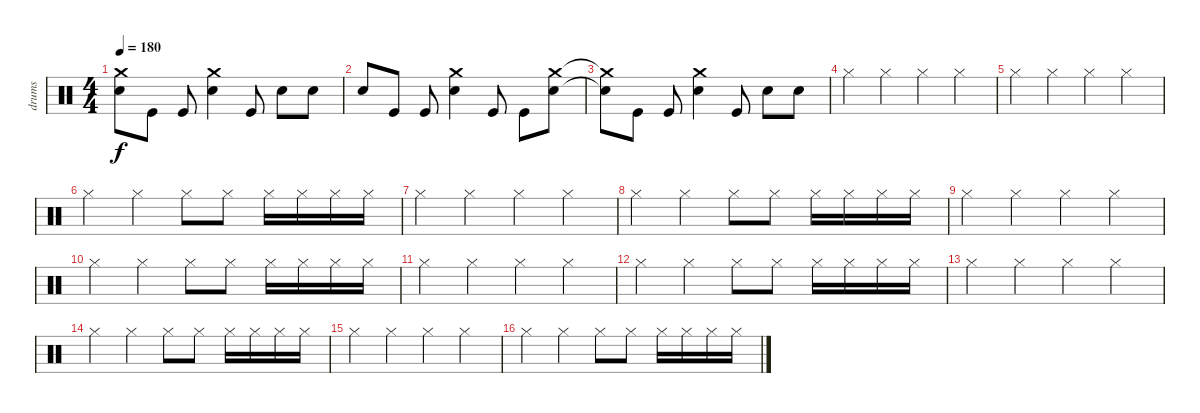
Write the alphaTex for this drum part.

\track ("drums" "drums") {instrument percussion}
\staff {score}
\articulation defaults
\ts (4 4)
\tempo 180
\clef neutral
\ks c
("Crash medium (hit)"{t} "Electric Snare (hit)"{t}).8{dy f} "Kick (hit)".8 "Kick (hit)".8 ("Crash medium (hit)" "Electric Snare (hit)").4 "Kick (hit)".8 "Electric Snare (hit)".8 "Electric Snare (hit)".8 |
"Electric Snare (hit)".8 "Kick (hit)".8 "Kick (hit)".8 ("Crash medium (hit)" "Electric Snare (hit)").4 "Kick (hit)".8 "Kick (hit)".8 ("Crash medium (hit)" "Electric Snare (hit)").8 |
("Crash medium (hit)"{t} "Electric Snare (hit)"{t}).8 "Kick (hit)".8 "Kick (hit)".8 ("Crash medium (hit)" "Electric Snare (hit)").4 "Kick (hit)".8 "Electric Snare (hit)".8 "Electric Snare (hit)".8 |
"Hi-Hat (closed)".4 "Hi-Hat (closed)".4 "Hi-Hat (closed)".4 "Hi-Hat (closed)".4 |
"Hi-Hat (closed)".4 "Hi-Hat (closed)".4 "Hi-Hat (closed)".4 "Hi-Hat (closed)".4 |
"Hi-Hat (closed)".4 "Hi-Hat (closed)".4 "Hi-Hat (closed)".8 "Hi-Hat (closed)".8 "Hi-Hat (closed)".16 "Hi-Hat (closed)".16 "Hi-Hat (closed)".16 "Hi-Hat (closed)".16 |
"Hi-Hat (closed)".4 "Hi-Hat (closed)".4 "Hi-Hat (closed)".4 "Hi-Hat (closed)".4 |
"Hi-Hat (closed)".4 "Hi-Hat (closed)".4 "Hi-Hat (closed)".8 "Hi-Hat (closed)".8 "Hi-Hat (closed)".16 "Hi-Hat (closed)".16 "Hi-Hat (closed)".16 "Hi-Hat (closed)".16 |
"Hi-Hat (closed)".4 "Hi-Hat (closed)".4 "Hi-Hat (closed)".4 "Hi-Hat (closed)".4 |
"Hi-Hat (closed)".4 "Hi-Hat (closed)".4 "Hi-Hat (closed)".8 "Hi-Hat (closed)".8 "Hi-Hat (closed)".16 "Hi-Hat (closed)".16 "Hi-Hat (closed)".16 "Hi-Hat (closed)".16 |
"Hi-Hat (closed)".4 "Hi-Hat (closed)".4 "Hi-Hat (closed)".4 "Hi-Hat (closed)".4 |
"Hi-Hat (closed)".4 "Hi-Hat (closed)".4 "Hi-Hat (closed)".8 "Hi-Hat (closed)".8 "Hi-Hat (closed)".16 "Hi-Hat (closed)".16 "Hi-Hat (closed)".16 "Hi-Hat (closed)".16 |
"Hi-Hat (closed)".4 "Hi-Hat (closed)".4 "Hi-Hat (closed)".4 "Hi-Hat (closed)".4 |
"Hi-Hat (closed)".4 "Hi-Hat (closed)".4 "Hi-Hat (closed)".8 "Hi-Hat (closed)".8 "Hi-Hat (closed)".16 "Hi-Hat (closed)".16 "Hi-Hat (closed)".16 "Hi-Hat (closed)".16 |
"Hi-Hat (closed)".4 "Hi-Hat (closed)".4 "Hi-Hat (closed)".4 "Hi-Hat (closed)".4 |
"Hi-Hat (closed)".4 "Hi-Hat (closed)".4 "Hi-Hat (closed)".8 "Hi-Hat (closed)".8 "Hi-Hat (closed)".16 "Hi-Hat (closed)".16 "Hi-Hat (closed)".16 "Hi-Hat (closed)".16
